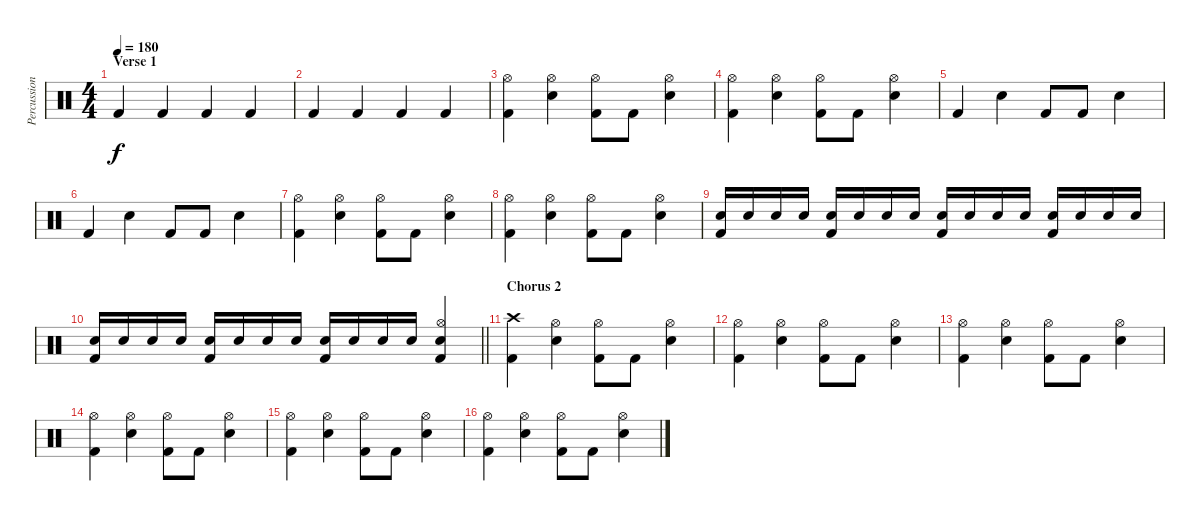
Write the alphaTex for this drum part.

\track ("Percussion" "Percussion") {instrument percussion}
\staff {score}
\articulation defaults
\ts (4 4)
\section ("" "Verse 1")
\tempo 180
\clef neutral
\ks c "Kick (hit) 2".4{dy f} "Kick (hit) 2".4 "Kick (hit) 2".4 "Kick (hit) 2".4
|
"Kick (hit) 2".4 "Kick (hit) 2".4 "Kick (hit) 2".4 "Kick (hit) 2".4 |
("Hi-Hat (open)" "Kick (hit) 2").4 ("Hi-Hat (open)" "Snare (hit) 2").4 ("Hi-Hat (open)" "Kick (hit) 2").8 "Kick (hit) 2".8 ("Hi-Hat (open)" "Snare (hit) 2").4 |
("Hi-Hat (open)" "Kick (hit) 2").4 ("Hi-Hat (open)" "Snare (hit) 2").4 ("Hi-Hat (open)" "Kick (hit) 2").8 "Kick (hit) 2".8 ("Hi-Hat (open)" "Snare (hit) 2").4 |
"Kick (hit) 2".4 "Snare (hit) 2".4 "Kick (hit) 2".8 "Kick (hit) 2".8 "Snare (hit) 2".4 |
"Kick (hit) 2".4 "Snare (hit) 2".4 "Kick (hit) 2".8 "Kick (hit) 2".8 "Snare (hit) 2".4 |
("Hi-Hat (open)" "Kick (hit) 2").4 ("Hi-Hat (open)" "Snare (hit) 2").4 ("Hi-Hat (open)" "Kick (hit) 2").8 "Kick (hit) 2".8 ("Hi-Hat (open)" "Snare (hit) 2").4 |
("Hi-Hat (open)" "Kick (hit) 2").4 ("Hi-Hat (open)" "Snare (hit) 2").4 ("Hi-Hat (open)" "Kick (hit) 2").8 "Kick (hit) 2".8 ("Hi-Hat (open)" "Snare (hit) 2").4 |
("Snare (hit) 2" "Kick (hit) 2").16 "Snare (hit) 2".16 "Snare (hit) 2".16 "Snare (hit) 2".16 ("Snare (hit) 2" "Kick (hit) 2").16 "Snare (hit) 2".16 "Snare (hit) 2".16 "Snare (hit) 2".16 ("Snare (hit) 2" "Kick (hit) 2").16 "Snare (hit) 2".16 "Snare (hit) 2".16 "Snare (hit) 2".16 ("Snare (hit) 2" "Kick (hit) 2").16 "Snare (hit) 2".16 "Snare (hit) 2".16 "Snare (hit) 2".16 |
\barLineRight lightlight
("Snare (hit) 2" "Kick (hit) 2").16 "Snare (hit) 2".16 "Snare (hit) 2".16 "Snare (hit) 2".16 ("Snare (hit) 2" "Kick (hit) 2").16 "Snare (hit) 2".16 "Snare (hit) 2".16 "Snare (hit) 2".16 ("Snare (hit) 2" "Kick (hit) 2").16 "Snare (hit) 2".16 "Snare (hit) 2".16 "Snare (hit) 2".16 ("Hi-Hat (open)" "Snare (hit) 2" "Kick (hit) 2").4 |
\section ("" "Chorus 2")
("Crash high (hit)" "Kick (hit) 2").4 ("Hi-Hat (open)" "Snare (hit) 2").4 ("Hi-Hat (open)" "Kick (hit) 2").8 "Kick (hit) 2".8 ("Hi-Hat (open)" "Snare (hit) 2").4 |
("Hi-Hat (open)" "Kick (hit) 2").4 ("Hi-Hat (open)" "Snare (hit) 2").4 ("Hi-Hat (open)" "Kick (hit) 2").8 "Kick (hit) 2".8 ("Hi-Hat (open)" "Snare (hit) 2").4 |
("Hi-Hat (open)" "Kick (hit) 2").4 ("Hi-Hat (open)" "Snare (hit) 2").4 ("Hi-Hat (open)" "Kick (hit) 2").8 "Kick (hit) 2".8 ("Hi-Hat (open)" "Snare (hit) 2").4 |
("Hi-Hat (open)" "Kick (hit) 2").4 ("Hi-Hat (open)" "Snare (hit) 2").4 ("Hi-Hat (open)" "Kick (hit) 2").8 "Kick (hit) 2".8 ("Hi-Hat (open)" "Snare (hit) 2").4 |
("Hi-Hat (open)" "Kick (hit) 2").4 ("Hi-Hat (open)" "Snare (hit) 2").4 ("Hi-Hat (open)" "Kick (hit) 2").8 "Kick (hit) 2".8 ("Hi-Hat (open)" "Snare (hit) 2").4 |
("Hi-Hat (open)" "Kick (hit) 2").4 ("Hi-Hat (open)" "Snare (hit) 2").4 ("Hi-Hat (open)" "Kick (hit) 2").8 "Kick (hit) 2".8 ("Hi-Hat (open)" "Snare (hit) 2").4
